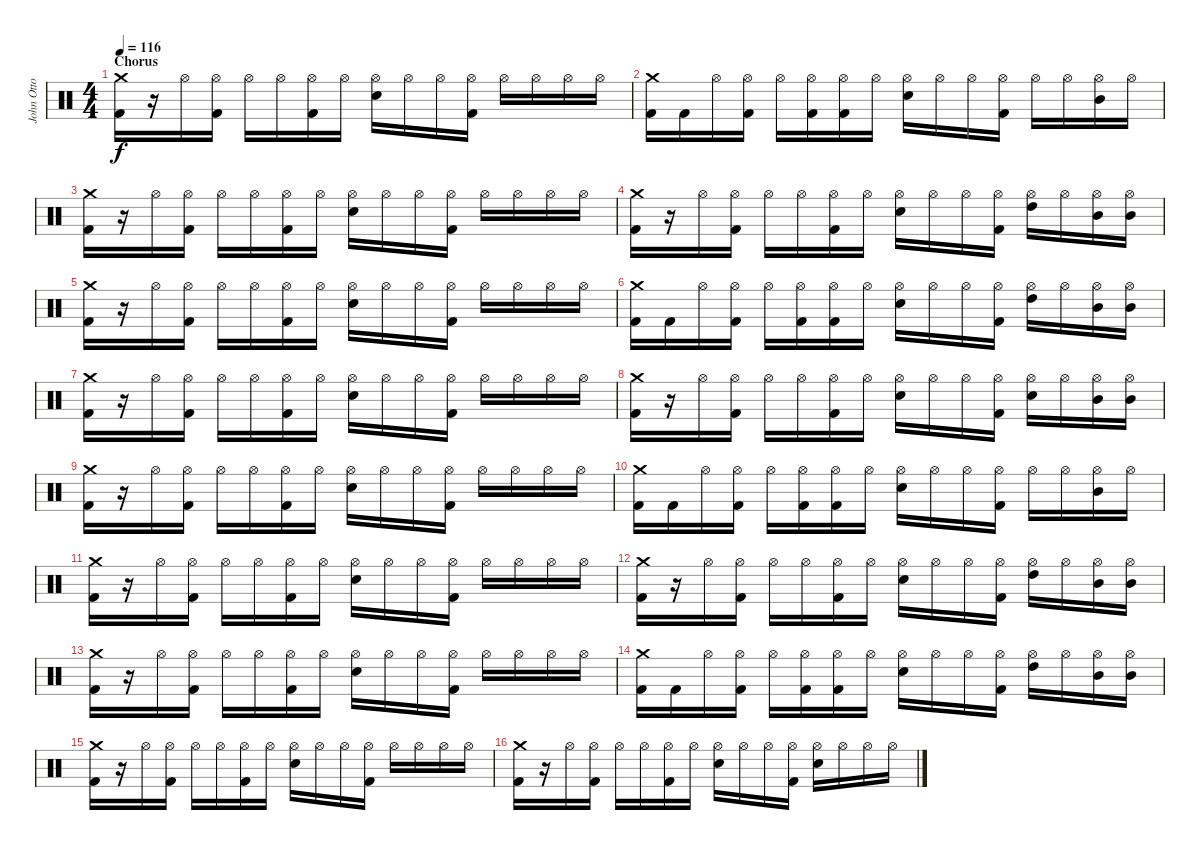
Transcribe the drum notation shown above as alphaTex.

\track ("John Otto - Drums" "John Otto ") {instrument percussion}
\staff {score}
\articulation defaults
\ts (4 4)
\section ("" "Chorus")
\tempo 116
\clef neutral
\ks c
("Crash medium (hit)" "Kick (hit) 2").16{dy f} r.16 "Hi-Hat (open)".16 ("Hi-Hat (open)" "Kick (hit) 2").16 "Hi-Hat (open)".16 "Hi-Hat (open)".16 ("Hi-Hat (open)" "Kick (hit) 2").16 "Hi-Hat (open)".16 ("Hi-Hat (open)" "Electric Snare (hit)").16 "Hi-Hat (open)".16 "Hi-Hat (open)".16 ("Hi-Hat (open)" "Kick (hit) 2").16 "Hi-Hat (open)".16 "Hi-Hat (open)".16 "Hi-Hat (open)".16 "Hi-Hat (open)".16 |
("Crash medium (hit)" "Kick (hit) 2").16 "Kick (hit) 2".16 "Hi-Hat (open)".16 ("Hi-Hat (open)" "Kick (hit) 2").16 "Hi-Hat (open)".16 ("Hi-Hat (open)" "Kick (hit) 2").16 ("Hi-Hat (open)" "Kick (hit) 2").16 "Hi-Hat (open)".16 ("Hi-Hat (open)" "Electric Snare (hit)").16 "Hi-Hat (open)".16 "Hi-Hat (open)".16 ("Hi-Hat (open)" "Kick (hit) 2").16 "Hi-Hat (open)".16 "Hi-Hat (open)".16 ("Hi-Hat (open)" "Mid Tom (hit)").16 "Hi-Hat (open)".16 |
("Crash medium (hit)" "Kick (hit) 2").16 r.16 "Hi-Hat (open)".16 ("Hi-Hat (open)" "Kick (hit) 2").16 "Hi-Hat (open)".16 "Hi-Hat (open)".16 ("Hi-Hat (open)" "Kick (hit) 2").16 "Hi-Hat (open)".16 ("Hi-Hat (open)" "Electric Snare (hit)").16 "Hi-Hat (open)".16 "Hi-Hat (open)".16 ("Hi-Hat (open)" "Kick (hit) 2").16 "Hi-Hat (open)".16 "Hi-Hat (open)".16 "Hi-Hat (open)".16 "Hi-Hat (open)".16 |
("Crash medium (hit)" "Kick (hit) 2").16 r.16 "Hi-Hat (open)".16 ("Hi-Hat (open)" "Kick (hit) 2").16 "Hi-Hat (open)".16 "Hi-Hat (open)".16 ("Hi-Hat (open)" "Kick (hit) 2").16 "Hi-Hat (open)".16 ("Hi-Hat (open)" "Electric Snare (hit)").16 "Hi-Hat (open)".16 "Hi-Hat (open)".16 ("Hi-Hat (open)" "Kick (hit) 2").16 ("Hi-Hat (open)" "High Tom (hit)").16 "Hi-Hat (open)".16 ("Hi-Hat (open)" "Mid Tom (hit)").16 ("Hi-Hat (open)" "Mid Tom (hit)").16 |
("Crash medium (hit)" "Kick (hit) 2").16 r.16 "Hi-Hat (open)".16 ("Hi-Hat (open)" "Kick (hit) 2").16 "Hi-Hat (open)".16 "Hi-Hat (open)".16 ("Hi-Hat (open)" "Kick (hit) 2").16 "Hi-Hat (open)".16 ("Hi-Hat (open)" "Electric Snare (hit)").16 "Hi-Hat (open)".16 "Hi-Hat (open)".16 ("Hi-Hat (open)" "Kick (hit) 2").16 "Hi-Hat (open)".16 "Hi-Hat (open)".16 "Hi-Hat (open)".16 "Hi-Hat (open)".16 |
("Crash medium (hit)" "Kick (hit) 2").16 "Kick (hit) 2".16 "Hi-Hat (open)".16 ("Hi-Hat (open)" "Kick (hit) 2").16 "Hi-Hat (open)".16 ("Hi-Hat (open)" "Kick (hit) 2").16 ("Hi-Hat (open)" "Kick (hit) 2").16 "Hi-Hat (open)".16 ("Hi-Hat (open)" "Electric Snare (hit)").16 "Hi-Hat (open)".16 "Hi-Hat (open)".16 ("Hi-Hat (open)" "Kick (hit) 2").16 ("Hi-Hat (open)" "High Tom (hit)").16 "Hi-Hat (open)".16 ("Hi-Hat (open)" "Mid Tom (hit)").16 ("Hi-Hat (open)" "Mid Tom (hit)").16 |
("Crash medium (hit)" "Kick (hit) 2").16 r.16 "Hi-Hat (open)".16 ("Hi-Hat (open)" "Kick (hit) 2").16 "Hi-Hat (open)".16 "Hi-Hat (open)".16 ("Hi-Hat (open)" "Kick (hit) 2").16 "Hi-Hat (open)".16 ("Hi-Hat (open)" "Electric Snare (hit)").16 "Hi-Hat (open)".16 "Hi-Hat (open)".16 ("Hi-Hat (open)" "Kick (hit) 2").16 "Hi-Hat (open)".16 "Hi-Hat (open)".16 "Hi-Hat (open)".16 "Hi-Hat (open)".16 |
("Crash medium (hit)" "Kick (hit) 2").16 r.16 "Hi-Hat (open)".16 ("Hi-Hat (open)" "Kick (hit) 2").16 "Hi-Hat (open)".16 "Hi-Hat (open)".16 ("Hi-Hat (open)" "Kick (hit) 2").16 "Hi-Hat (open)".16 ("Hi-Hat (open)" "Electric Snare (hit)").16 "Hi-Hat (open)".16 "Hi-Hat (open)".16 ("Hi-Hat (open)" "Kick (hit) 2").16 ("Hi-Hat (open)" "Electric Snare (hit)").16 "Hi-Hat (open)".16 ("Hi-Hat (open)" "Mid Tom (hit)").16 ("Hi-Hat (open)" "Mid Tom (hit)").16 |
("Crash medium (hit)" "Kick (hit) 2").16 r.16 "Hi-Hat (open)".16 ("Hi-Hat (open)" "Kick (hit) 2").16 "Hi-Hat (open)".16 "Hi-Hat (open)".16 ("Hi-Hat (open)" "Kick (hit) 2").16 "Hi-Hat (open)".16 ("Hi-Hat (open)" "Electric Snare (hit)").16 "Hi-Hat (open)".16 "Hi-Hat (open)".16 ("Hi-Hat (open)" "Kick (hit) 2").16 "Hi-Hat (open)".16 "Hi-Hat (open)".16 "Hi-Hat (open)".16 "Hi-Hat (open)".16 |
("Crash medium (hit)" "Kick (hit) 2").16 "Kick (hit) 2".16 "Hi-Hat (open)".16 ("Hi-Hat (open)" "Kick (hit) 2").16 "Hi-Hat (open)".16 ("Hi-Hat (open)" "Kick (hit) 2").16 ("Hi-Hat (open)" "Kick (hit) 2").16 "Hi-Hat (open)".16 ("Hi-Hat (open)" "Electric Snare (hit)").16 "Hi-Hat (open)".16 "Hi-Hat (open)".16 ("Hi-Hat (open)" "Kick (hit) 2").16 "Hi-Hat (open)".16 "Hi-Hat (open)".16 ("Hi-Hat (open)" "Mid Tom (hit)").16 "Hi-Hat (open)".16 |
("Crash medium (hit)" "Kick (hit) 2").16 r.16 "Hi-Hat (open)".16 ("Hi-Hat (open)" "Kick (hit) 2").16 "Hi-Hat (open)".16 "Hi-Hat (open)".16 ("Hi-Hat (open)" "Kick (hit) 2").16 "Hi-Hat (open)".16 ("Hi-Hat (open)" "Electric Snare (hit)").16 "Hi-Hat (open)".16 "Hi-Hat (open)".16 ("Hi-Hat (open)" "Kick (hit) 2").16 "Hi-Hat (open)".16 "Hi-Hat (open)".16 "Hi-Hat (open)".16 "Hi-Hat (open)".16 |
("Crash medium (hit)" "Kick (hit) 2").16 r.16 "Hi-Hat (open)".16 ("Hi-Hat (open)" "Kick (hit) 2").16 "Hi-Hat (open)".16 "Hi-Hat (open)".16 ("Hi-Hat (open)" "Kick (hit) 2").16 "Hi-Hat (open)".16 ("Hi-Hat (open)" "Electric Snare (hit)").16 "Hi-Hat (open)".16 "Hi-Hat (open)".16 ("Hi-Hat (open)" "Kick (hit) 2").16 ("Hi-Hat (open)" "High Tom (hit)").16 "Hi-Hat (open)".16 ("Hi-Hat (open)" "Mid Tom (hit)").16 ("Hi-Hat (open)" "Mid Tom (hit)").16 |
("Crash medium (hit)" "Kick (hit) 2").16 r.16 "Hi-Hat (open)".16 ("Hi-Hat (open)" "Kick (hit) 2").16 "Hi-Hat (open)".16 "Hi-Hat (open)".16 ("Hi-Hat (open)" "Kick (hit) 2").16 "Hi-Hat (open)".16 ("Hi-Hat (open)" "Electric Snare (hit)").16 "Hi-Hat (open)".16 "Hi-Hat (open)".16 ("Hi-Hat (open)" "Kick (hit) 2").16 "Hi-Hat (open)".16 "Hi-Hat (open)".16 "Hi-Hat (open)".16 "Hi-Hat (open)".16 |
("Crash medium (hit)" "Kick (hit) 2").16 "Kick (hit) 2".16 "Hi-Hat (open)".16 ("Hi-Hat (open)" "Kick (hit) 2").16 "Hi-Hat (open)".16 ("Hi-Hat (open)" "Kick (hit) 2").16 ("Hi-Hat (open)" "Kick (hit) 2").16 "Hi-Hat (open)".16 ("Hi-Hat (open)" "Electric Snare (hit)").16 "Hi-Hat (open)".16 "Hi-Hat (open)".16 ("Hi-Hat (open)" "Kick (hit) 2").16 ("Hi-Hat (open)" "High Tom (hit)").16 "Hi-Hat (open)".16 ("Hi-Hat (open)" "Mid Tom (hit)").16 ("Hi-Hat (open)" "Mid Tom (hit)").16 |
("Crash medium (hit)" "Kick (hit) 2").16 r.16 "Hi-Hat (open)".16 ("Hi-Hat (open)" "Kick (hit) 2").16 "Hi-Hat (open)".16 "Hi-Hat (open)".16 ("Hi-Hat (open)" "Kick (hit) 2").16 "Hi-Hat (open)".16 ("Hi-Hat (open)" "Electric Snare (hit)").16 "Hi-Hat (open)".16 "Hi-Hat (open)".16 ("Hi-Hat (open)" "Kick (hit) 2").16 "Hi-Hat (open)".16 "Hi-Hat (open)".16 "Hi-Hat (open)".16 "Hi-Hat (open)".16 |
("Crash medium (hit)" "Kick (hit) 2").16 r.16 "Hi-Hat (open)".16 ("Hi-Hat (open)" "Kick (hit) 2").16 "Hi-Hat (open)".16 "Hi-Hat (open)".16 ("Hi-Hat (open)" "Kick (hit) 2").16 "Hi-Hat (open)".16 ("Hi-Hat (open)" "Electric Snare (hit)").16 "Hi-Hat (open)".16 "Hi-Hat (open)".16 ("Hi-Hat (open)" "Kick (hit) 2").16 ("Hi-Hat (open)" "Electric Snare (hit)").16 "Hi-Hat (open)".16 "Hi-Hat (open)".16 "Hi-Hat (open)".16
